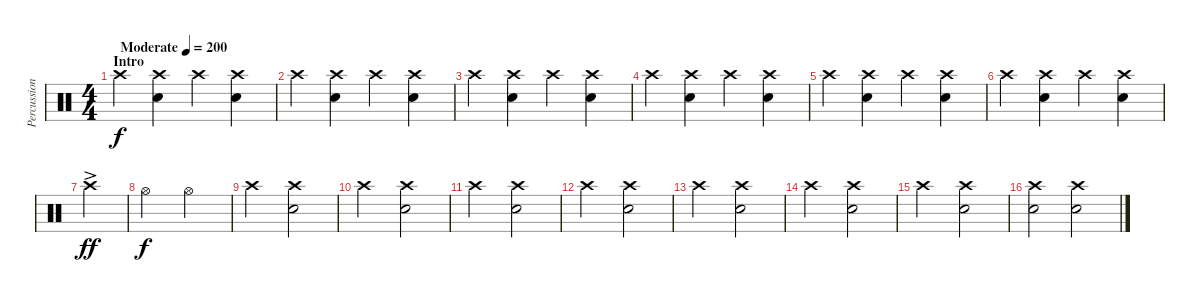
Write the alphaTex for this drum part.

\track ("Percussion" "Percussion") {instrument percussion}
\staff {score}
\articulation defaults
\ts (4 4)
\section ("" "Intro")
\tempo (200 "Moderate")
\clef neutral
\ks c "Crash high (hit)".4{dy f}
("Crash high (hit)" "Snare (hit) 2").4 "Crash high (hit)".4 ("Crash high (hit)" "Snare (hit) 2").4 |
"Crash high (hit)".4 ("Crash high (hit)" "Snare (hit) 2").4 "Crash high (hit)".4 ("Crash high (hit)" "Snare (hit) 2").4 |
"Crash high (hit)".4 ("Crash high (hit)" "Snare (hit) 2").4 "Crash high (hit)".4 ("Crash high (hit)" "Snare (hit) 2").4 |
"Crash high (hit)".4 ("Crash high (hit)" "Snare (hit) 2").4 "Crash high (hit)".4 ("Crash high (hit)" "Snare (hit) 2").4 |
"Crash high (hit)".4 ("Crash high (hit)" "Snare (hit) 2").4 "Crash high (hit)".4 ("Crash high (hit)" "Snare (hit) 2").4 |
"Crash high (hit)".4 ("Crash high (hit)" "Snare (hit) 2").4 "Crash high (hit)".4 ("Crash high (hit)" "Snare (hit) 2").4 |
"Crash high (hit)"{ac}.4{dy ff} |
"Hi-Hat (open)".2{dy f} "Hi-Hat (open)".2 |
"Crash high (hit)".2 ("Crash high (hit)" "Snare (hit) 2").2 |
"Crash high (hit)".2 ("Crash high (hit)" "Snare (hit) 2").2 |
"Crash high (hit)".2 ("Crash high (hit)" "Snare (hit) 2").2 |
"Crash high (hit)".2 ("Crash high (hit)" "Snare (hit) 2").2 |
"Crash high (hit)".2 ("Crash high (hit)" "Snare (hit) 2").2 |
"Crash high (hit)".2 ("Crash high (hit)" "Snare (hit) 2").2 |
"Crash high (hit)".2 ("Crash high (hit)" "Snare (hit) 2").2 |
("Crash high (hit)" "Snare (hit) 2").2 ("Crash high (hit)" "Snare (hit) 2").2
